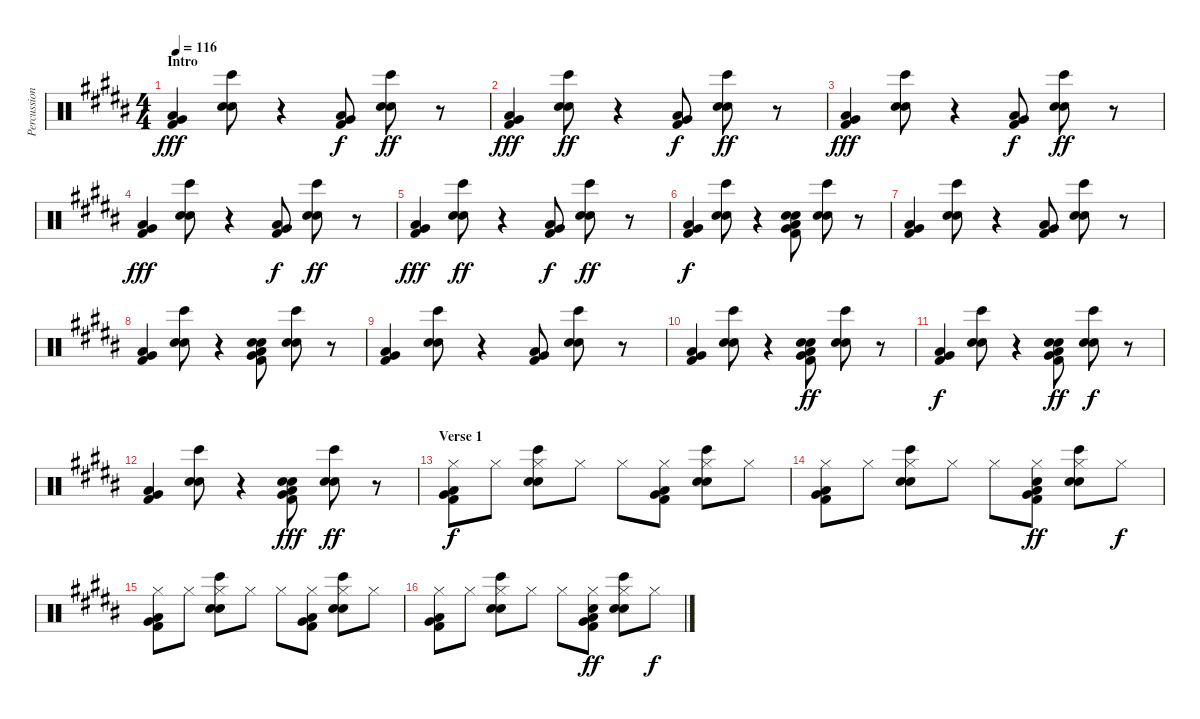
\track ("Percussion" "Percussion") {instrument percussion}
\staff {score}
\articulation defaults
\ts (4 4)
\section ("" "Intro")
\tempo 116
\clef neutral
\ks b
("Low Tom (hit)" "Very Low Tom (hit)" "Kick (hit) 2").4{dy fff} ("Bongo High (hit)" "Hand Clap (hit)" "Hand Clap (hit)").8 r.4 ("Low Tom (hit)" "Very Low Tom (hit)" "Kick (hit) 2").8{dy f} ("Bongo High (hit)" "Hand Clap (hit)" "Hand Clap (hit)").8{dy ff} r.8 |
("Low Tom (hit)" "Very Low Tom (hit)" "Kick (hit) 2").4{dy fff} ("Bongo High (hit)" "Hand Clap (hit)" "Hand Clap (hit)").8{dy ff} r.4 ("Low Tom (hit)" "Very Low Tom (hit)" "Kick (hit) 2").8{dy f} ("Bongo High (hit)" "Hand Clap (hit)" "Hand Clap (hit)").8{dy ff} r.8 |
("Low Tom (hit)" "Very Low Tom (hit)" "Kick (hit) 2").4{dy fff} ("Bongo High (hit)" "Hand Clap (hit)" "Hand Clap (hit)").8 r.4 ("Low Tom (hit)" "Very Low Tom (hit)" "Kick (hit) 2").8{dy f} ("Bongo High (hit)" "Hand Clap (hit)" "Hand Clap (hit)").8{dy ff} r.8 |
("Low Tom (hit)" "Very Low Tom (hit)" "Kick (hit) 2").4{dy fff} ("Bongo High (hit)" "Hand Clap (hit)" "Hand Clap (hit)").8 r.4 ("Low Tom (hit)" "Very Low Tom (hit)" "Kick (hit) 2").8{dy f} ("Bongo High (hit)" "Hand Clap (hit)" "Hand Clap (hit)").8{dy ff} r.8 |
("Low Tom (hit)" "Very Low Tom (hit)" "Kick (hit) 2").4{dy fff} ("Bongo High (hit)" "Hand Clap (hit)" "Hand Clap (hit)").8{dy ff} r.4 ("Low Tom (hit)" "Very Low Tom (hit)" "Kick (hit) 2").8{dy f} ("Bongo High (hit)" "Hand Clap (hit)" "Hand Clap (hit)").8{dy ff} r.8 |
("Low Tom (hit)" "Very Low Tom (hit)" "Kick (hit) 2").4{dy f} ("Bongo High (hit)" "Hand Clap (hit)" "Hand Clap (hit)").8 r.4 ("Low Tom (hit)" "Very Low Tom (hit)" "Kick (hit) 2" "Hand Clap (hit)" "Hand Clap (hit)").8 ("Bongo High (hit)" "Hand Clap (hit)" "Hand Clap (hit)").8 r.8 |
("Low Tom (hit)" "Very Low Tom (hit)" "Kick (hit) 2").4 ("Bongo High (hit)" "Hand Clap (hit)" "Hand Clap (hit)").8 r.4 ("Low Tom (hit)" "Very Low Tom (hit)" "Kick (hit) 2").8 ("Bongo High (hit)" "Hand Clap (hit)" "Hand Clap (hit)").8 r.8 |
("Low Tom (hit)" "Very Low Tom (hit)" "Kick (hit) 2").4 ("Bongo High (hit)" "Hand Clap (hit)" "Hand Clap (hit)").8 r.4 ("Low Tom (hit)" "Very Low Tom (hit)" "Kick (hit) 2" "Hand Clap (hit)" "Hand Clap (hit)").8 ("Bongo High (hit)" "Hand Clap (hit)" "Hand Clap (hit)").8 r.8 |
("Low Tom (hit)" "Very Low Tom (hit)" "Kick (hit) 2").4 ("Bongo High (hit)" "Hand Clap (hit)" "Hand Clap (hit)").8 r.4 ("Low Tom (hit)" "Very Low Tom (hit)" "Kick (hit) 2").8 ("Bongo High (hit)" "Hand Clap (hit)" "Hand Clap (hit)").8 r.8 |
("Low Tom (hit)" "Very Low Tom (hit)" "Kick (hit) 2").4 ("Bongo High (hit)" "Hand Clap (hit)" "Hand Clap (hit)").8 r.4 ("Low Tom (hit)" "Very Low Tom (hit)" "Kick (hit) 2" "Hand Clap (hit)" "Hand Clap (hit)").8{dy ff} ("Bongo High (hit)" "Hand Clap (hit)" "Hand Clap (hit)").8 r.8 |
("Low Tom (hit)" "Very Low Tom (hit)" "Kick (hit) 2").4{dy f} ("Bongo High (hit)" "Hand Clap (hit)" "Hand Clap (hit)").8 r.4 ("Low Tom (hit)" "Very Low Tom (hit)" "Kick (hit) 2" "Hand Clap (hit)" "Hand Clap (hit)").8{dy ff} ("Bongo High (hit)" "Hand Clap (hit)" "Hand Clap (hit)").8{dy f} r.8 |
("Low Tom (hit)" "Very Low Tom (hit)" "Kick (hit) 2").4 ("Bongo High (hit)" "Hand Clap (hit)" "Hand Clap (hit)").8 r.4 ("Low Tom (hit)" "Very Low Tom (hit)" "Kick (hit) 2" "Hand Clap (hit)" "Hand Clap (hit)").8{dy fff} ("Bongo High (hit)" "Hand Clap (hit)" "Hand Clap (hit)").8{dy ff} r.8 |
\section ("" "Verse 1")
("Low Tom (hit)" "Very Low Tom (hit)" "Kick (hit) 2" "Hi-Hat (closed)").8{dy f} "Hi-Hat (closed)".8 ("Bongo High (hit)" "Hand Clap (hit)" "Snare (hit) 2" "Hi-Hat (closed)").8 "Hi-Hat (closed)".8 "Hi-Hat (closed)".8 ("Low Tom (hit)" "Very Low Tom (hit)" "Kick (hit) 2" "Hi-Hat (closed)").8 ("Bongo High (hit)" "Hand Clap (hit)" "Snare (hit) 2" "Hi-Hat (closed)").8 "Hi-Hat (closed)".8 |
("Low Tom (hit)" "Very Low Tom (hit)" "Kick (hit) 2" "Hi-Hat (closed)").8 "Hi-Hat (closed)".8 ("Bongo High (hit)" "Hand Clap (hit)" "Snare (hit) 2" "Hi-Hat (closed)").8 "Hi-Hat (closed)".8 "Hi-Hat (closed)".8 ("Low Tom (hit)" "Very Low Tom (hit)" "Kick (hit) 2" "Hi-Hat (closed)" "Hand Clap (hit)").8{dy ff} ("Bongo High (hit)" "Hand Clap (hit)" "Snare (hit) 2" "Hi-Hat (closed)").8 "Hi-Hat (closed)".8{dy f} |
("Low Tom (hit)" "Very Low Tom (hit)" "Kick (hit) 2" "Hi-Hat (closed)").8 "Hi-Hat (closed)".8 ("Bongo High (hit)" "Hand Clap (hit)" "Snare (hit) 2" "Hi-Hat (closed)").8 "Hi-Hat (closed)".8 "Hi-Hat (closed)".8 ("Low Tom (hit)" "Very Low Tom (hit)" "Kick (hit) 2" "Hi-Hat (closed)").8 ("Bongo High (hit)" "Hand Clap (hit)" "Snare (hit) 2" "Hi-Hat (closed)").8 "Hi-Hat (closed)".8 |
("Low Tom (hit)" "Very Low Tom (hit)" "Kick (hit) 2" "Hi-Hat (closed)").8 "Hi-Hat (closed)".8 ("Bongo High (hit)" "Hand Clap (hit)" "Snare (hit) 2" "Hi-Hat (closed)").8 "Hi-Hat (closed)".8 "Hi-Hat (closed)".8 ("Low Tom (hit)" "Very Low Tom (hit)" "Kick (hit) 2" "Hi-Hat (closed)" "Hand Clap (hit)").8{dy ff} ("Bongo High (hit)" "Hand Clap (hit)" "Snare (hit) 2" "Hi-Hat (closed)").8 "Hi-Hat (closed)".8{dy f}
